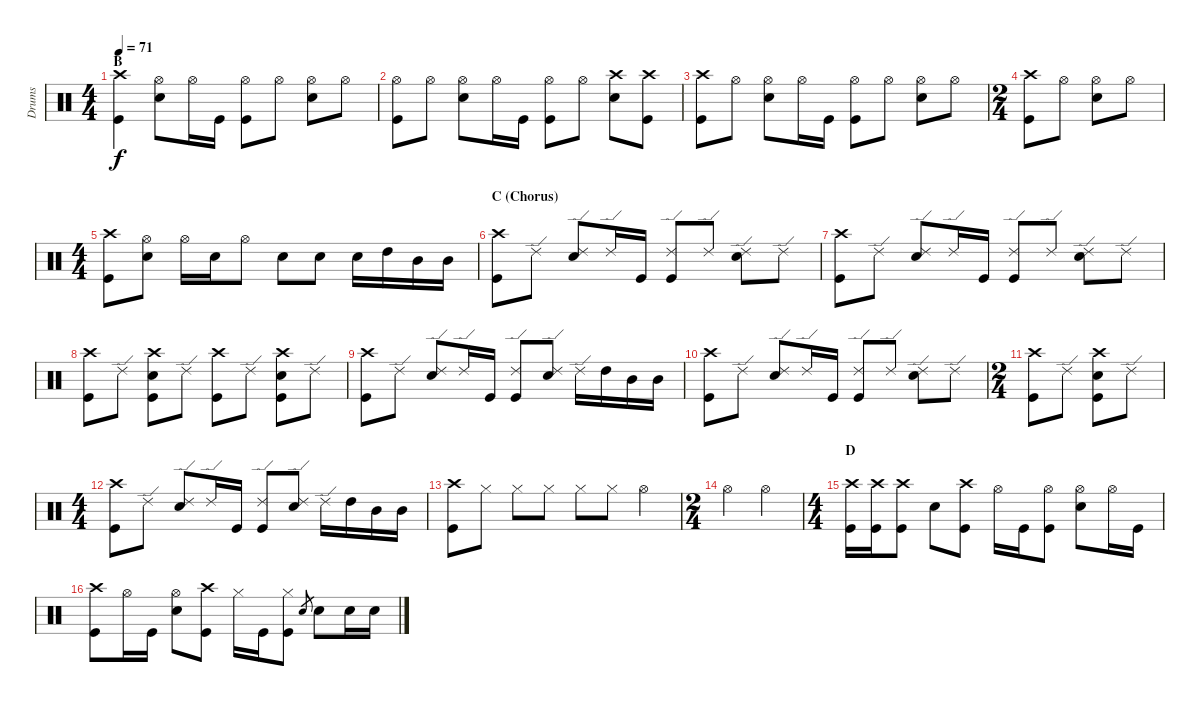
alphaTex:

\track ("Drums" "Drums") {instrument percussion}
\staff {score}
\articulation defaults
\ts (4 4)
\section ("" "B")
\tempo 71
\clef neutral
\ks c
("Crash high (hit)" "Kick (hit)").4{dy f} ("Hi-Hat (open)" "Snare (hit) 2").8 "Hi-Hat (open)".16 "Kick (hit)".16 ("Hi-Hat (open)" "Kick (hit)").8 "Hi-Hat (open)".8 ("Hi-Hat (open)" "Snare (hit) 2").8 "Hi-Hat (open)".8 |
("Hi-Hat (open)" "Kick (hit)").8 "Hi-Hat (open)".8 ("Hi-Hat (open)" "Snare (hit) 2").8 "Hi-Hat (open)".16 "Kick (hit)".16 ("Hi-Hat (open)" "Kick (hit)").8 "Hi-Hat (open)".8 ("Crash high (hit)" "Snare (hit) 2").8 ("Crash high (hit)" "Kick (hit)").8 |
("Crash high (hit)" "Kick (hit)").8 "Hi-Hat (open)".8 ("Hi-Hat (open)" "Snare (hit) 2").8 "Hi-Hat (open)".16 "Kick (hit)".16 ("Hi-Hat (open)" "Kick (hit)").8 "Hi-Hat (open)".8 ("Hi-Hat (open)" "Snare (hit) 2").8 "Hi-Hat (open)".8 |
\ts (2 4)
("Crash high (hit)" "Kick (hit)").8 "Hi-Hat (open)".8 ("Hi-Hat (open)" "Snare (hit) 2").8 "Hi-Hat (open)".8 |
\ts (4 4)
("Crash high (hit)" "Kick (hit)").8 ("Hi-Hat (open)" "Snare (hit) 2").8 "Hi-Hat (open)".16 "Snare (hit) 2".16 "Hi-Hat (open)".8 "Snare (hit) 2".8 "Snare (hit) 2".8 "Snare (hit) 2".16 "High Tom (hit)".16 "Mid Tom (hit)".16 "Mid Tom (hit)".16 |
\section ("" "C (Chorus)")
("Crash high (hit)" "Kick (hit)").8 "Ride (edge) 2".8 ("Ride (edge) 2" "Snare (hit) 2").8 "Ride (edge) 2".16 "Kick (hit)".16 ("Ride (edge) 2" "Kick (hit)").8 "Ride (edge) 2".8 ("Ride (edge) 2" "Snare (hit) 2").8 "Ride (edge) 2".8 |
("Crash high (hit)" "Kick (hit)").8 "Ride (edge) 2".8 ("Ride (edge) 2" "Snare (hit) 2").8 "Ride (edge) 2".16 "Kick (hit)".16 ("Ride (edge) 2" "Kick (hit)").8 "Ride (edge) 2".8 ("Ride (edge) 2" "Snare (hit) 2").8 "Ride (edge) 2".8 |
("Crash high (hit)" "Kick (hit)").8 "Ride (edge) 2".8 ("Crash high (hit)" "Snare (hit) 2" "Kick (hit)").8 "Ride (edge) 2".8 ("Crash high (hit)" "Kick (hit)").8 "Ride (edge) 2".8 ("Crash high (hit)" "Snare (hit) 2" "Kick (hit)").8 "Ride (edge) 2".8 |
("Crash high (hit)" "Kick (hit)").8 "Ride (edge) 2".8 ("Ride (edge) 2" "Snare (hit) 2").8 "Ride (edge) 2".16 "Kick (hit)".16 ("Ride (edge) 2" "Kick (hit)").8 ("Ride (edge) 2" "Snare (hit) 2").8 "Ride (edge) 2".16 "High Tom (hit)".16 "Mid Tom (hit)".16 "Mid Tom (hit)".16 |
("Crash high (hit)" "Kick (hit)").8 "Ride (edge) 2".8 ("Ride (edge) 2" "Snare (hit) 2").8 "Ride (edge) 2".16 "Kick (hit)".16 ("Ride (edge) 2" "Kick (hit)").8 "Ride (edge) 2".8 ("Ride (edge) 2" "Snare (hit) 2").8 "Ride (edge) 2".8 |
\ts (2 4)
("Crash high (hit)" "Kick (hit)").8 "Ride (edge) 2".8 ("Crash high (hit)" "Snare (hit) 2" "Kick (hit)").8 "Ride (edge) 2".8 |
\ts (4 4)
("Crash high (hit)" "Kick (hit)").8 "Ride (edge) 2".8 ("Ride (edge) 2" "Snare (hit) 2").8 "Ride (edge) 2".16 "Kick (hit)".16 ("Ride (edge) 2" "Kick (hit)").8 ("Ride (edge) 2" "Snare (hit) 2").8 "Ride (edge) 2".16 "High Tom (hit)".16 "Mid Tom (hit)".16 "Mid Tom (hit)".16 |
("Crash high (hit)" "Kick (hit)").8 "Hi-Hat (closed)".8 "Hi-Hat (closed)".8 "Hi-Hat (closed)".8 "Hi-Hat (closed)".8 "Hi-Hat (closed)".8 "Hi-Hat (open)".4 |
\ts (2 4)
"Hi-Hat (open)".4 "Hi-Hat (open)".4 |
\ts (4 4)
\section ("" "D")
("Crash high (hit)" "Kick (hit)").16 ("Crash high (hit)" "Kick (hit)").16 ("Crash high (hit)" "Kick (hit)").8 "Snare (hit) 2".8 ("Crash high (hit)" "Kick (hit)").8 "Hi-Hat (open)".16 "Kick (hit)".16 ("Hi-Hat (open)" "Kick (hit)").8 ("Hi-Hat (open)" "Snare (hit) 2").8 "Hi-Hat (open)".16 "Kick (hit)".16 |
("Crash high (hit)" "Kick (hit)").8 "Hi-Hat (open)".16 "Kick (hit)".16 ("Hi-Hat (open)" "Snare (hit) 2").8 ("Crash high (hit)" "Kick (hit)").8 "Hi-Hat (closed)".16 "Kick (hit)".16 ("Hi-Hat (closed)" "Kick (hit)").8 "Snare (hit) 2".8{gr} "Snare (hit) 2".8 "Snare (hit) 2".16 "Snare (hit) 2".16
